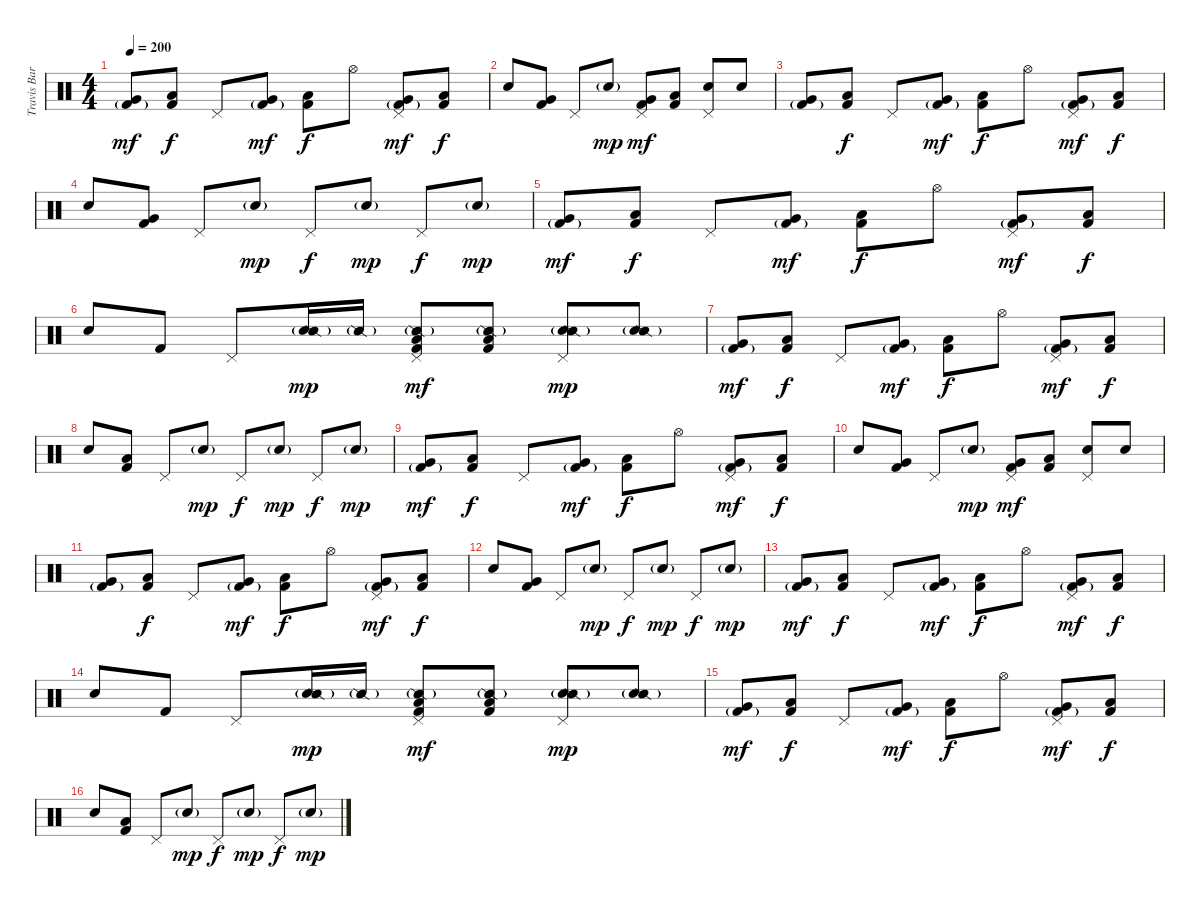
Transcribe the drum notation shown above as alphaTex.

\track ("Travis Barker - Drums" "Travis Bar") {instrument percussion}
\staff {score}
\articulation defaults
\ts (4 4)
\tempo 200
\clef neutral
\ks c
("Very Low Tom (hit)" "Kick (hit) 2"{g}).8{dy mf} ("Low Floor Tom (hit)" "Kick (hit) 2").8{dy f} "Pedal Hi-Hat (hit)".8 ("Very Low Tom (hit)" "Kick (hit) 2"{g}).8{dy mf} ("Low Floor Tom (hit)" "Kick (hit) 2").8{dy f} "Hi-Hat (open)".8 ("Pedal Hi-Hat (hit)" "Very Low Tom (hit)" "Kick (hit) 2"{g}).8{dy mf} ("Low Floor Tom (hit)" "Kick (hit) 2").8{dy f} |
"Electric Snare (hit)".8 ("Very Low Tom (hit)" "Kick (hit) 2").8 "Pedal Hi-Hat (hit)".8 "Electric Snare (hit)"{g}.8{dy mp} ("Pedal Hi-Hat (hit)" "Very Low Tom (hit)" "Kick (hit) 2").8{dy mf} ("Low Floor Tom (hit)" "Kick (hit) 2").8 ("Pedal Hi-Hat (hit)" "Electric Snare (hit)").8 "Electric Snare (hit)".8 |
("Very Low Tom (hit)" "Kick (hit) 2"{g}).8 ("Low Floor Tom (hit)" "Kick (hit) 2").8{dy f} "Pedal Hi-Hat (hit)".8 ("Very Low Tom (hit)" "Kick (hit) 2"{g}).8{dy mf} ("Low Floor Tom (hit)" "Kick (hit) 2").8{dy f} "Hi-Hat (open)".8 ("Pedal Hi-Hat (hit)" "Very Low Tom (hit)" "Kick (hit) 2"{g}).8{dy mf} ("Low Floor Tom (hit)" "Kick (hit) 2").8{dy f} |
"Electric Snare (hit)".8 ("Very Low Tom (hit)" "Kick (hit) 2").8 "Pedal Hi-Hat (hit)".8 "Electric Snare (hit)"{g}.8{dy mp} "Pedal Hi-Hat (hit)".8{dy f} "Electric Snare (hit)"{g}.8{dy mp} "Pedal Hi-Hat (hit)".8{dy f} "Electric Snare (hit)"{g}.8{dy mp} |
("Very Low Tom (hit)" "Kick (hit) 2"{g}).8{dy mf} ("Low Floor Tom (hit)" "Kick (hit) 2").8{dy f} "Pedal Hi-Hat (hit)".8 ("Very Low Tom (hit)" "Kick (hit) 2"{g}).8{dy mf} ("Low Floor Tom (hit)" "Kick (hit) 2").8{dy f} "Hi-Hat (open)".8 ("Pedal Hi-Hat (hit)" "Very Low Tom (hit)" "Kick (hit) 2"{g}).8{dy mf} ("Low Floor Tom (hit)" "Kick (hit) 2").8{dy f} |
"Electric Snare (hit)".8 "Kick (hit) 2".8 "Pedal Hi-Hat (hit)".8 ("Electric Snare (hit)"{g} "Snare (side stick) 2"{g}).16{dy mp} "Snare (side stick) 2"{g}.16 ("Pedal Hi-Hat (hit)" "Snare (side stick) 2"{g} "Low Floor Tom (hit)" "Kick (hit) 2").8{dy mf} ("Snare (side stick) 2"{g} "Low Floor Tom (hit)" "Kick (hit) 2").8 ("Pedal Hi-Hat (hit)" "Electric Snare (hit)" "Snare (side stick) 2"{g}).8{dy mp} ("Electric Snare (hit)" "Snare (side stick) 2"{g}).8 |
("Very Low Tom (hit)" "Kick (hit) 2"{g}).8{dy mf} ("Low Floor Tom (hit)" "Kick (hit) 2").8{dy f} "Pedal Hi-Hat (hit)".8 ("Very Low Tom (hit)" "Kick (hit) 2"{g}).8{dy mf} ("Low Floor Tom (hit)" "Kick (hit) 2").8{dy f} "Hi-Hat (open)".8 ("Pedal Hi-Hat (hit)" "Very Low Tom (hit)" "Kick (hit) 2"{g}).8{dy mf} ("Low Floor Tom (hit)" "Kick (hit) 2").8{dy f} |
"Electric Snare (hit)".8 ("Low Floor Tom (hit)" "Kick (hit) 2").8 "Pedal Hi-Hat (hit)".8 "Electric Snare (hit)"{g}.8{dy mp} "Pedal Hi-Hat (hit)".8{dy f} "Electric Snare (hit)"{g}.8{dy mp} "Pedal Hi-Hat (hit)".8{dy f} "Electric Snare (hit)"{g}.8{dy mp} |
("Very Low Tom (hit)" "Kick (hit) 2"{g}).8{dy mf} ("Low Floor Tom (hit)" "Kick (hit) 2").8{dy f} "Pedal Hi-Hat (hit)".8 ("Very Low Tom (hit)" "Kick (hit) 2"{g}).8{dy mf} ("Low Floor Tom (hit)" "Kick (hit) 2").8{dy f} "Hi-Hat (open)".8 ("Pedal Hi-Hat (hit)" "Very Low Tom (hit)" "Kick (hit) 2"{g}).8{dy mf} ("Low Floor Tom (hit)" "Kick (hit) 2").8{dy f} |
"Electric Snare (hit)".8 ("Very Low Tom (hit)" "Kick (hit) 2").8 "Pedal Hi-Hat (hit)".8 "Electric Snare (hit)"{g}.8{dy mp} ("Pedal Hi-Hat (hit)" "Very Low Tom (hit)" "Kick (hit) 2").8{dy mf} ("Low Floor Tom (hit)" "Kick (hit) 2").8 ("Pedal Hi-Hat (hit)" "Electric Snare (hit)").8 "Electric Snare (hit)".8 |
("Very Low Tom (hit)" "Kick (hit) 2"{g}).8 ("Low Floor Tom (hit)" "Kick (hit) 2").8{dy f} "Pedal Hi-Hat (hit)".8 ("Very Low Tom (hit)" "Kick (hit) 2"{g}).8{dy mf} ("Low Floor Tom (hit)" "Kick (hit) 2").8{dy f} "Hi-Hat (open)".8 ("Pedal Hi-Hat (hit)" "Very Low Tom (hit)" "Kick (hit) 2"{g}).8{dy mf} ("Low Floor Tom (hit)" "Kick (hit) 2").8{dy f} |
"Electric Snare (hit)".8 ("Very Low Tom (hit)" "Kick (hit) 2").8 "Pedal Hi-Hat (hit)".8 "Electric Snare (hit)"{g}.8{dy mp} "Pedal Hi-Hat (hit)".8{dy f} "Electric Snare (hit)"{g}.8{dy mp} "Pedal Hi-Hat (hit)".8{dy f} "Electric Snare (hit)"{g}.8{dy mp} |
("Very Low Tom (hit)" "Kick (hit) 2"{g}).8{dy mf} ("Low Floor Tom (hit)" "Kick (hit) 2").8{dy f} "Pedal Hi-Hat (hit)".8 ("Very Low Tom (hit)" "Kick (hit) 2"{g}).8{dy mf} ("Low Floor Tom (hit)" "Kick (hit) 2").8{dy f} "Hi-Hat (open)".8 ("Pedal Hi-Hat (hit)" "Very Low Tom (hit)" "Kick (hit) 2"{g}).8{dy mf} ("Low Floor Tom (hit)" "Kick (hit) 2").8{dy f} |
"Electric Snare (hit)".8 "Kick (hit) 2".8 "Pedal Hi-Hat (hit)".8 ("Electric Snare (hit)"{g} "Snare (side stick) 2"{g}).16{dy mp} "Snare (side stick) 2"{g}.16 ("Pedal Hi-Hat (hit)" "Snare (side stick) 2"{g} "Low Floor Tom (hit)" "Kick (hit) 2").8{dy mf} ("Snare (side stick) 2"{g} "Low Floor Tom (hit)" "Kick (hit) 2").8 ("Pedal Hi-Hat (hit)" "Electric Snare (hit)" "Snare (side stick) 2"{g}).8{dy mp} ("Electric Snare (hit)" "Snare (side stick) 2"{g}).8 |
("Very Low Tom (hit)" "Kick (hit) 2"{g}).8{dy mf} ("Low Floor Tom (hit)" "Kick (hit) 2").8{dy f} "Pedal Hi-Hat (hit)".8 ("Very Low Tom (hit)" "Kick (hit) 2"{g}).8{dy mf} ("Low Floor Tom (hit)" "Kick (hit) 2").8{dy f} "Hi-Hat (open)".8 ("Pedal Hi-Hat (hit)" "Very Low Tom (hit)" "Kick (hit) 2"{g}).8{dy mf} ("Low Floor Tom (hit)" "Kick (hit) 2").8{dy f} |
"Electric Snare (hit)".8 ("Low Floor Tom (hit)" "Kick (hit) 2").8 "Pedal Hi-Hat (hit)".8 "Electric Snare (hit)"{g}.8{dy mp} "Pedal Hi-Hat (hit)".8{dy f} "Electric Snare (hit)"{g}.8{dy mp} "Pedal Hi-Hat (hit)".8{dy f} "Electric Snare (hit)"{g}.8{dy mp}
